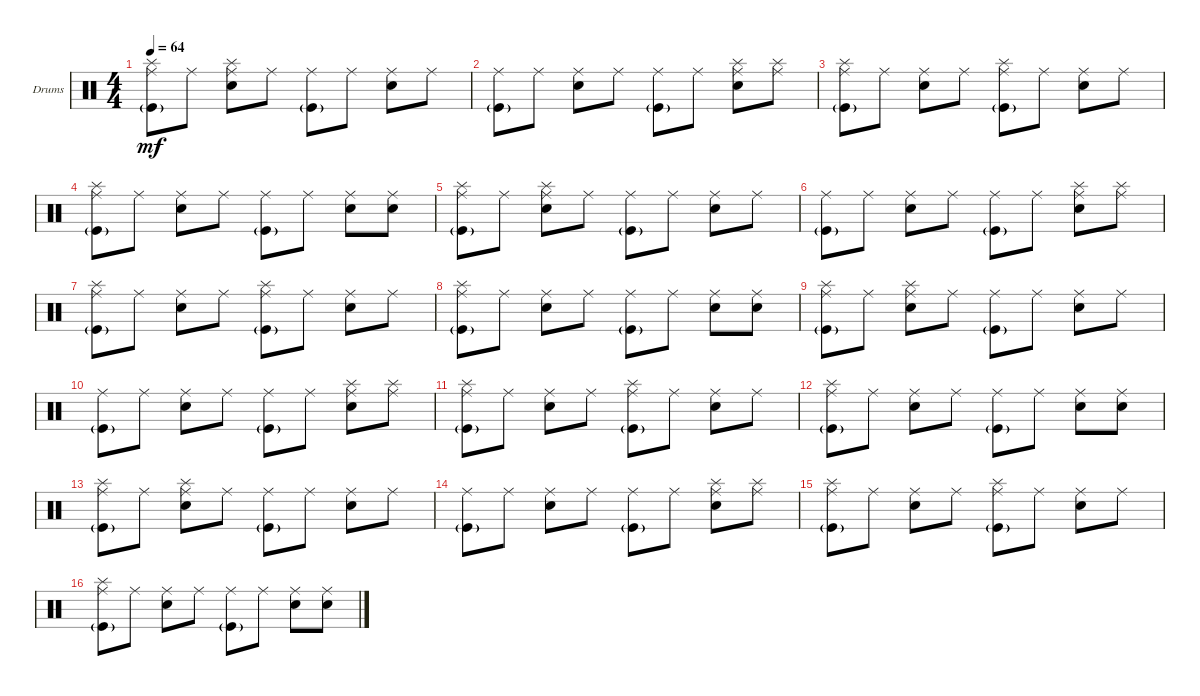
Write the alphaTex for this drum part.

\defaultSystemsLayout 4
\bracketExtendMode groupsimilarinstruments
\firstSystemTrackNameOrientation horizontal
\otherSystemsTrackNameOrientation horizontal
\track ("Drumkit" "Drums") {instrument percussion}
\staff {score}
\articulation defaults
\ts (4 4)
\tempo 64
\clef neutral
\ks c
("Ride (middle)" "Splash (hit)" "Kick (hit)"{g}).8{dy mf} "Ride (middle)".8 ("Ride (middle)" "Snare (hit) 2" "Splash (hit)").8 "Ride (middle)".8 ("Ride (middle)" "Kick (hit)"{g}).8 "Ride (middle)".8 ("Ride (middle)" "Snare (hit) 2").8 "Ride (middle)".8 |
("Ride (middle)" "Kick (hit)"{g}).8 "Ride (middle)".8 ("Ride (middle)" "Snare (hit) 2").8 "Ride (middle)".8 ("Ride (middle)" "Kick (hit)"{g}).8 "Ride (middle)".8 ("Ride (middle)" "Snare (hit) 2" "Splash (hit)").8 ("Ride (middle)" "Splash (hit)").8 |
("Ride (middle)" "Splash (hit)" "Kick (hit)"{g}).8 "Ride (middle)".8 ("Ride (middle)" "Snare (hit) 2").8 "Ride (middle)".8 ("Ride (middle)" "Kick (hit)"{g} "Splash (hit)").8 "Ride (middle)".8 ("Ride (middle)" "Snare (hit) 2").8 "Ride (middle)".8 |
("Ride (middle)" "Kick (hit)"{g} "Splash (hit)").8 "Ride (middle)".8 ("Ride (middle)" "Snare (hit) 2").8 "Ride (middle)".8 ("Ride (middle)" "Kick (hit)"{g}).8 "Ride (middle)".8 ("Ride (middle)" "Snare (hit) 2").8 ("Ride (middle)" "Snare (hit) 2").8 |
("Ride (middle)" "Splash (hit)" "Kick (hit)"{g}).8 "Ride (middle)".8 ("Ride (middle)" "Snare (hit) 2" "Splash (hit)").8 "Ride (middle)".8 ("Ride (middle)" "Kick (hit)"{g}).8 "Ride (middle)".8 ("Ride (middle)" "Snare (hit) 2").8 "Ride (middle)".8 |
("Ride (middle)" "Kick (hit)"{g}).8 "Ride (middle)".8 ("Ride (middle)" "Snare (hit) 2").8 "Ride (middle)".8 ("Ride (middle)" "Kick (hit)"{g}).8 "Ride (middle)".8 ("Ride (middle)" "Snare (hit) 2" "Splash (hit)").8 ("Ride (middle)" "Splash (hit)").8 |
("Ride (middle)" "Splash (hit)" "Kick (hit)"{g}).8 "Ride (middle)".8 ("Ride (middle)" "Snare (hit) 2").8 "Ride (middle)".8 ("Ride (middle)" "Kick (hit)"{g} "Splash (hit)").8 "Ride (middle)".8 ("Ride (middle)" "Snare (hit) 2").8 "Ride (middle)".8 |
("Ride (middle)" "Kick (hit)"{g} "Splash (hit)").8 "Ride (middle)".8 ("Ride (middle)" "Snare (hit) 2").8 "Ride (middle)".8 ("Ride (middle)" "Kick (hit)"{g}).8 "Ride (middle)".8 ("Ride (middle)" "Snare (hit) 2").8 ("Ride (middle)" "Snare (hit) 2").8 |
("Ride (middle)" "Splash (hit)" "Kick (hit)"{g}).8 "Ride (middle)".8 ("Ride (middle)" "Snare (hit) 2" "Splash (hit)").8 "Ride (middle)".8 ("Ride (middle)" "Kick (hit)"{g}).8 "Ride (middle)".8 ("Ride (middle)" "Snare (hit) 2").8 "Ride (middle)".8 |
("Ride (middle)" "Kick (hit)"{g}).8 "Ride (middle)".8 ("Ride (middle)" "Snare (hit) 2").8 "Ride (middle)".8 ("Ride (middle)" "Kick (hit)"{g}).8 "Ride (middle)".8 ("Ride (middle)" "Snare (hit) 2" "Splash (hit)").8 ("Ride (middle)" "Splash (hit)").8 |
("Ride (middle)" "Splash (hit)" "Kick (hit)"{g}).8 "Ride (middle)".8 ("Ride (middle)" "Snare (hit) 2").8 "Ride (middle)".8 ("Ride (middle)" "Kick (hit)"{g} "Splash (hit)").8 "Ride (middle)".8 ("Ride (middle)" "Snare (hit) 2").8 "Ride (middle)".8 |
("Ride (middle)" "Kick (hit)"{g} "Splash (hit)").8 "Ride (middle)".8 ("Ride (middle)" "Snare (hit) 2").8 "Ride (middle)".8 ("Ride (middle)" "Kick (hit)"{g}).8 "Ride (middle)".8 ("Ride (middle)" "Snare (hit) 2").8 ("Ride (middle)" "Snare (hit) 2").8 |
("Ride (middle)" "Splash (hit)" "Kick (hit)"{g}).8 "Ride (middle)".8 ("Ride (middle)" "Snare (hit) 2" "Splash (hit)").8 "Ride (middle)".8 ("Ride (middle)" "Kick (hit)"{g}).8 "Ride (middle)".8 ("Ride (middle)" "Snare (hit) 2").8 "Ride (middle)".8 |
("Ride (middle)" "Kick (hit)"{g}).8 "Ride (middle)".8 ("Ride (middle)" "Snare (hit) 2").8 "Ride (middle)".8 ("Ride (middle)" "Kick (hit)"{g}).8 "Ride (middle)".8 ("Ride (middle)" "Snare (hit) 2" "Splash (hit)").8 ("Ride (middle)" "Splash (hit)").8 |
("Ride (middle)" "Splash (hit)" "Kick (hit)"{g}).8 "Ride (middle)".8 ("Ride (middle)" "Snare (hit) 2").8 "Ride (middle)".8 ("Ride (middle)" "Kick (hit)"{g} "Splash (hit)").8 "Ride (middle)".8 ("Ride (middle)" "Snare (hit) 2").8 "Ride (middle)".8 |
("Ride (middle)" "Kick (hit)"{g} "Splash (hit)").8 "Ride (middle)".8 ("Ride (middle)" "Snare (hit) 2").8 "Ride (middle)".8 ("Ride (middle)" "Kick (hit)"{g}).8 "Ride (middle)".8 ("Ride (middle)" "Snare (hit) 2").8 ("Ride (middle)" "Snare (hit) 2").8
